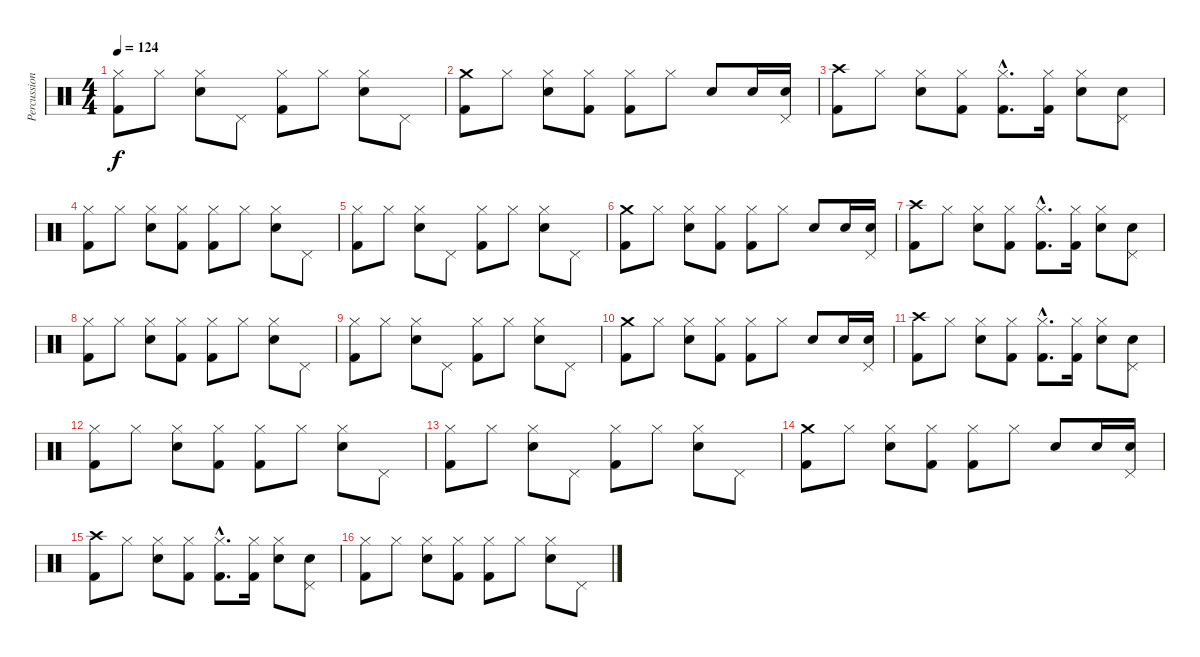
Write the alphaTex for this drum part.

\track ("Percussions" "Percussion") {instrument percussion}
\staff {score}
\articulation defaults
\ts (4 4)
\tempo 124
\clef neutral
\ks c
("Hi-Hat (closed)" "Kick (hit) 2").8{dy f} "Hi-Hat (closed)".8 ("Hi-Hat (closed)" "Electric Snare (hit)").8 "Pedal Hi-Hat (hit)".8 ("Hi-Hat (closed)" "Kick (hit) 2").8 "Hi-Hat (closed)".8 ("Hi-Hat (closed)" "Electric Snare (hit)").8 "Pedal Hi-Hat (hit)".8 |
("Crash medium (hit)" "Kick (hit) 2").8 "Hi-Hat (closed)".8 ("Hi-Hat (closed)" "Electric Snare (hit)").8 ("Hi-Hat (closed)" "Kick (hit) 2").8 ("Hi-Hat (closed)" "Kick (hit) 2").8 "Hi-Hat (closed)".8 "Electric Snare (hit)".8 "Electric Snare (hit)".16 ("Pedal Hi-Hat (hit)" "Electric Snare (hit)").16 |
("Crash high (hit)" "Kick (hit) 2").8 "Hi-Hat (closed)".8 ("Hi-Hat (closed)" "Electric Snare (hit)").8 ("Hi-Hat (closed)" "Kick (hit) 2").8 ("Hi-Hat (closed)"{hac} "Kick (hit) 2"{hac}).8{d} ("Hi-Hat (closed)" "Kick (hit) 2").16 ("Hi-Hat (closed)" "Electric Snare (hit)").8 ("Pedal Hi-Hat (hit)" "Electric Snare (hit)").8 |
("Hi-Hat (closed)" "Kick (hit) 2").8 "Hi-Hat (closed)".8 ("Hi-Hat (closed)" "Electric Snare (hit)").8 ("Hi-Hat (closed)" "Kick (hit) 2").8 ("Hi-Hat (closed)" "Kick (hit) 2").8 "Hi-Hat (closed)".8 ("Hi-Hat (closed)" "Electric Snare (hit)").8 "Pedal Hi-Hat (hit)".8 |
("Hi-Hat (closed)" "Kick (hit) 2").8 "Hi-Hat (closed)".8 ("Hi-Hat (closed)" "Electric Snare (hit)").8 "Pedal Hi-Hat (hit)".8 ("Hi-Hat (closed)" "Kick (hit) 2").8 "Hi-Hat (closed)".8 ("Hi-Hat (closed)" "Electric Snare (hit)").8 "Pedal Hi-Hat (hit)".8 |
("Crash medium (hit)" "Kick (hit) 2").8 "Hi-Hat (closed)".8 ("Hi-Hat (closed)" "Electric Snare (hit)").8 ("Hi-Hat (closed)" "Kick (hit) 2").8 ("Hi-Hat (closed)" "Kick (hit) 2").8 "Hi-Hat (closed)".8 "Electric Snare (hit)".8 "Electric Snare (hit)".16 ("Pedal Hi-Hat (hit)" "Electric Snare (hit)").16 |
("Crash high (hit)" "Kick (hit) 2").8 "Hi-Hat (closed)".8 ("Hi-Hat (closed)" "Electric Snare (hit)").8 ("Hi-Hat (closed)" "Kick (hit) 2").8 ("Hi-Hat (closed)"{hac} "Kick (hit) 2"{hac}).8{d} ("Hi-Hat (closed)" "Kick (hit) 2").16 ("Hi-Hat (closed)" "Electric Snare (hit)").8 ("Pedal Hi-Hat (hit)" "Electric Snare (hit)").8 |
("Hi-Hat (closed)" "Kick (hit) 2").8 "Hi-Hat (closed)".8 ("Hi-Hat (closed)" "Electric Snare (hit)").8 ("Hi-Hat (closed)" "Kick (hit) 2").8 ("Hi-Hat (closed)" "Kick (hit) 2").8 "Hi-Hat (closed)".8 ("Hi-Hat (closed)" "Electric Snare (hit)").8 "Pedal Hi-Hat (hit)".8 |
("Hi-Hat (closed)" "Kick (hit) 2").8 "Hi-Hat (closed)".8 ("Hi-Hat (closed)" "Electric Snare (hit)").8 "Pedal Hi-Hat (hit)".8 ("Hi-Hat (closed)" "Kick (hit) 2").8 "Hi-Hat (closed)".8 ("Hi-Hat (closed)" "Electric Snare (hit)").8 "Pedal Hi-Hat (hit)".8 |
("Crash medium (hit)" "Kick (hit) 2").8 "Hi-Hat (closed)".8 ("Hi-Hat (closed)" "Electric Snare (hit)").8 ("Hi-Hat (closed)" "Kick (hit) 2").8 ("Hi-Hat (closed)" "Kick (hit) 2").8 "Hi-Hat (closed)".8 "Electric Snare (hit)".8 "Electric Snare (hit)".16 ("Pedal Hi-Hat (hit)" "Electric Snare (hit)").16 |
("Crash high (hit)" "Kick (hit) 2").8 "Hi-Hat (closed)".8 ("Hi-Hat (closed)" "Electric Snare (hit)").8 ("Hi-Hat (closed)" "Kick (hit) 2").8 ("Hi-Hat (closed)"{hac} "Kick (hit) 2"{hac}).8{d} ("Hi-Hat (closed)" "Kick (hit) 2").16 ("Hi-Hat (closed)" "Electric Snare (hit)").8 ("Pedal Hi-Hat (hit)" "Electric Snare (hit)").8 |
("Hi-Hat (closed)" "Kick (hit) 2").8 "Hi-Hat (closed)".8 ("Hi-Hat (closed)" "Electric Snare (hit)").8 ("Hi-Hat (closed)" "Kick (hit) 2").8 ("Hi-Hat (closed)" "Kick (hit) 2").8 "Hi-Hat (closed)".8 ("Hi-Hat (closed)" "Electric Snare (hit)").8 "Pedal Hi-Hat (hit)".8 |
("Hi-Hat (closed)" "Kick (hit) 2").8 "Hi-Hat (closed)".8 ("Hi-Hat (closed)" "Electric Snare (hit)").8 "Pedal Hi-Hat (hit)".8 ("Hi-Hat (closed)" "Kick (hit) 2").8 "Hi-Hat (closed)".8 ("Hi-Hat (closed)" "Electric Snare (hit)").8 "Pedal Hi-Hat (hit)".8 |
("Crash medium (hit)" "Kick (hit) 2").8 "Hi-Hat (closed)".8 ("Hi-Hat (closed)" "Electric Snare (hit)").8 ("Hi-Hat (closed)" "Kick (hit) 2").8 ("Hi-Hat (closed)" "Kick (hit) 2").8 "Hi-Hat (closed)".8 "Electric Snare (hit)".8 "Electric Snare (hit)".16 ("Pedal Hi-Hat (hit)" "Electric Snare (hit)").16 |
("Crash high (hit)" "Kick (hit) 2").8 "Hi-Hat (closed)".8 ("Hi-Hat (closed)" "Electric Snare (hit)").8 ("Hi-Hat (closed)" "Kick (hit) 2").8 ("Hi-Hat (closed)"{hac} "Kick (hit) 2"{hac}).8{d} ("Hi-Hat (closed)" "Kick (hit) 2").16 ("Hi-Hat (closed)" "Electric Snare (hit)").8 ("Pedal Hi-Hat (hit)" "Electric Snare (hit)").8 |
("Hi-Hat (closed)" "Kick (hit) 2").8 "Hi-Hat (closed)".8 ("Hi-Hat (closed)" "Electric Snare (hit)").8 ("Hi-Hat (closed)" "Kick (hit) 2").8 ("Hi-Hat (closed)" "Kick (hit) 2").8 "Hi-Hat (closed)".8 ("Hi-Hat (closed)" "Electric Snare (hit)").8 "Pedal Hi-Hat (hit)".8
